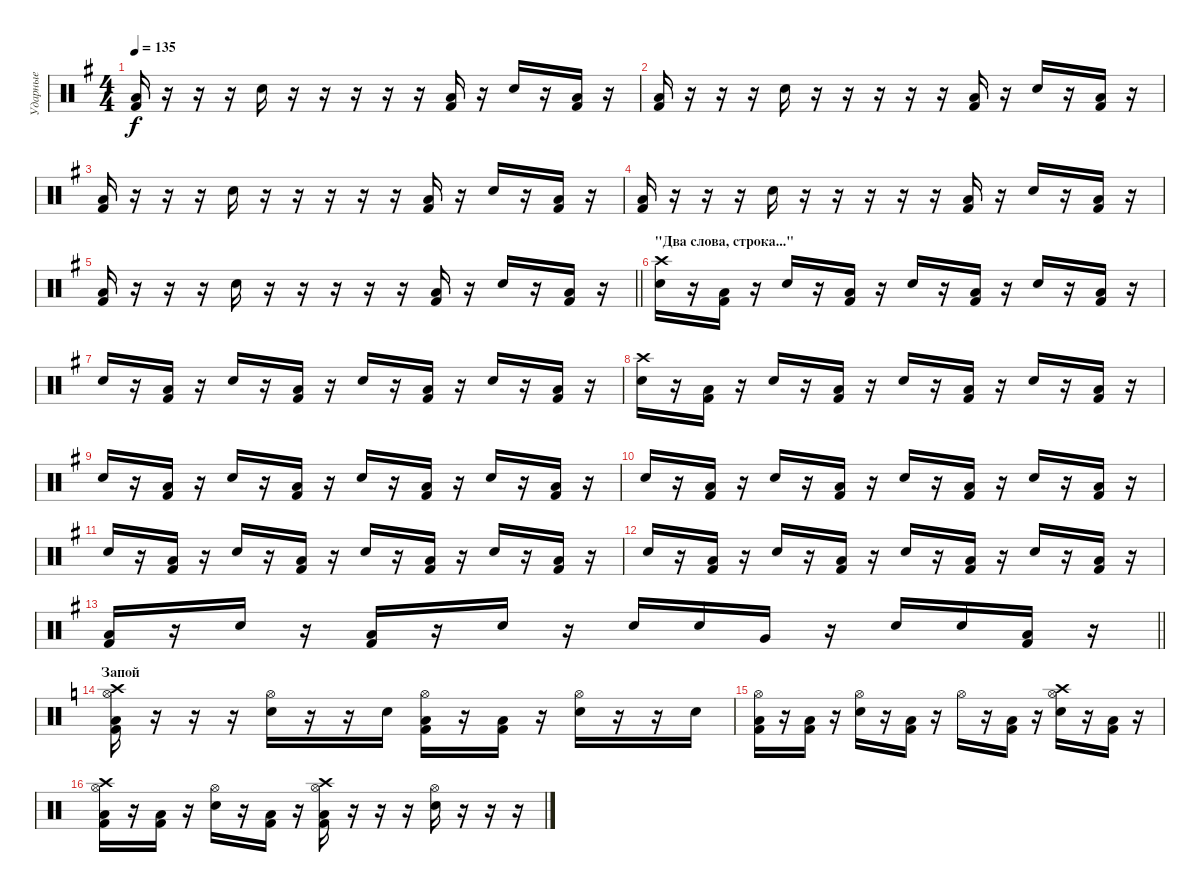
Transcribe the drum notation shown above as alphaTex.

\track ("Ударные" "Ударные") {instrument percussion}
\staff {score}
\articulation defaults
\ts (4 4)
\tempo 135
\clef neutral
\ks eminor
("Low Floor Tom (hit)" "Kick (hit) 2").16{dy f} r.16 r.16 r.16 "Electric Snare (hit)".16 r.16 r.16 r.16 r.16 r.16 ("Low Floor Tom (hit)" "Kick (hit) 2").16 r.16 "Electric Snare (hit)".16 r.16 ("Low Floor Tom (hit)" "Kick (hit) 2").16 r.16 |
("Low Floor Tom (hit)" "Kick (hit) 2").16 r.16 r.16 r.16 "Electric Snare (hit)".16 r.16 r.16 r.16 r.16 r.16 ("Low Floor Tom (hit)" "Kick (hit) 2").16 r.16 "Electric Snare (hit)".16 r.16 ("Low Floor Tom (hit)" "Kick (hit) 2").16 r.16 |
("Low Floor Tom (hit)" "Kick (hit) 2").16 r.16 r.16 r.16 "Electric Snare (hit)".16 r.16 r.16 r.16 r.16 r.16 ("Low Floor Tom (hit)" "Kick (hit) 2").16 r.16 "Electric Snare (hit)".16 r.16 ("Low Floor Tom (hit)" "Kick (hit) 2").16 r.16 |
("Low Floor Tom (hit)" "Kick (hit) 2").16 r.16 r.16 r.16 "Electric Snare (hit)".16 r.16 r.16 r.16 r.16 r.16 ("Low Floor Tom (hit)" "Kick (hit) 2").16 r.16 "Electric Snare (hit)".16 r.16 ("Low Floor Tom (hit)" "Kick (hit) 2").16 r.16 |
\barLineRight lightlight
("Low Floor Tom (hit)" "Kick (hit) 2").16 r.16 r.16 r.16 "Electric Snare (hit)".16 r.16 r.16 r.16 r.16 r.16 ("Low Floor Tom (hit)" "Kick (hit) 2").16 r.16 "Electric Snare (hit)".16 r.16 ("Low Floor Tom (hit)" "Kick (hit) 2").16 r.16 |
\section ("" "\"Два слова, строка...\"")
("Crash high (hit)" "Electric Snare (hit)").16 r.16 ("Low Floor Tom (hit)" "Kick (hit) 2").16 r.16 "Electric Snare (hit)".16 r.16 ("Low Floor Tom (hit)" "Kick (hit) 2").16 r.16 "Electric Snare (hit)".16 r.16 ("Low Floor Tom (hit)" "Kick (hit) 2").16 r.16 "Electric Snare (hit)".16 r.16 ("Low Floor Tom (hit)" "Kick (hit) 2").16 r.16 |
"Electric Snare (hit)".16 r.16 ("Low Floor Tom (hit)" "Kick (hit) 2").16 r.16 "Electric Snare (hit)".16 r.16 ("Low Floor Tom (hit)" "Kick (hit) 2").16 r.16 "Electric Snare (hit)".16 r.16 ("Low Floor Tom (hit)" "Kick (hit) 2").16 r.16 "Electric Snare (hit)".16 r.16 ("Low Floor Tom (hit)" "Kick (hit) 2").16 r.16 |
("Crash high (hit)" "Electric Snare (hit)").16 r.16 ("Low Floor Tom (hit)" "Kick (hit) 2").16 r.16 "Electric Snare (hit)".16 r.16 ("Low Floor Tom (hit)" "Kick (hit) 2").16 r.16 "Electric Snare (hit)".16 r.16 ("Low Floor Tom (hit)" "Kick (hit) 2").16 r.16 "Electric Snare (hit)".16 r.16 ("Low Floor Tom (hit)" "Kick (hit) 2").16 r.16 |
"Electric Snare (hit)".16 r.16 ("Low Floor Tom (hit)" "Kick (hit) 2").16 r.16 "Electric Snare (hit)".16 r.16 ("Low Floor Tom (hit)" "Kick (hit) 2").16 r.16 "Electric Snare (hit)".16 r.16 ("Low Floor Tom (hit)" "Kick (hit) 2").16 r.16 "Electric Snare (hit)".16 r.16 ("Low Floor Tom (hit)" "Kick (hit) 2").16 r.16 |
"Electric Snare (hit)".16 r.16 ("Low Floor Tom (hit)" "Kick (hit) 2").16 r.16 "Electric Snare (hit)".16 r.16 ("Low Floor Tom (hit)" "Kick (hit) 2").16 r.16 "Electric Snare (hit)".16 r.16 ("Low Floor Tom (hit)" "Kick (hit) 2").16 r.16 "Electric Snare (hit)".16 r.16 ("Low Floor Tom (hit)" "Kick (hit) 2").16 r.16 |
"Electric Snare (hit)".16 r.16 ("Low Floor Tom (hit)" "Kick (hit) 2").16 r.16 "Electric Snare (hit)".16 r.16 ("Low Floor Tom (hit)" "Kick (hit) 2").16 r.16 "Electric Snare (hit)".16 r.16 ("Low Floor Tom (hit)" "Kick (hit) 2").16 r.16 "Electric Snare (hit)".16 r.16 ("Low Floor Tom (hit)" "Kick (hit) 2").16 r.16 |
"Electric Snare (hit)".16 r.16 ("Low Floor Tom (hit)" "Kick (hit) 2").16 r.16 "Electric Snare (hit)".16 r.16 ("Low Floor Tom (hit)" "Kick (hit) 2").16 r.16 "Electric Snare (hit)".16 r.16 ("Low Floor Tom (hit)" "Kick (hit) 2").16 r.16 "Electric Snare (hit)".16 r.16 ("Low Floor Tom (hit)" "Kick (hit) 2").16 r.16 |
\barLineRight lightlight
("Low Floor Tom (hit)" "Kick (hit) 2").16 r.16 "Electric Snare (hit)".16 r.16 ("Low Floor Tom (hit)" "Kick (hit) 2").16 r.16 "Electric Snare (hit)".16 r.16 "Electric Snare (hit)".16 "Electric Snare (hit)".16 "Very Low Tom (hit)".16 r.16 "Electric Snare (hit)".16 "Electric Snare (hit)".16 ("Low Floor Tom (hit)" "Kick (hit) 2").16 r.16 |
\section ("" "Запой")
\ks c
("Crash high (hit)" "Hi-Hat (open)" "Low Floor Tom (hit)" "Kick (hit) 2").16 r.16 r.16 r.16 ("Hi-Hat (open)" "Electric Snare (hit)").16 r.16 r.16 "Electric Snare (hit)".16 ("Hi-Hat (open)" "Low Floor Tom (hit)" "Kick (hit) 2").16 r.16 ("Low Floor Tom (hit)" "Kick (hit) 2").16 r.16 ("Hi-Hat (open)" "Electric Snare (hit)").16 r.16 r.16 "Electric Snare (hit)".16 |
("Hi-Hat (open)" "Low Floor Tom (hit)" "Kick (hit) 2").16 r.16 ("Low Floor Tom (hit)" "Kick (hit) 2").16 r.16 ("Hi-Hat (open)" "Electric Snare (hit)").16 r.16 ("Low Floor Tom (hit)" "Kick (hit) 2").16 r.16 "Hi-Hat (open)".16 r.16 ("Low Floor Tom (hit)" "Kick (hit) 2").16 r.16 ("Crash high (hit)" "Hi-Hat (open)" "Electric Snare (hit)").16 r.16 ("Low Floor Tom (hit)" "Kick (hit) 2").16 r.16 |
("Crash high (hit)" "Hi-Hat (open)" "Low Floor Tom (hit)" "Kick (hit) 2").16 r.16 ("Low Floor Tom (hit)" "Kick (hit) 2").16 r.16 ("Hi-Hat (open)" "Electric Snare (hit)").16 r.16 ("Low Floor Tom (hit)" "Kick (hit) 2").16 r.16 ("Crash high (hit)" "Hi-Hat (open)" "Low Floor Tom (hit)" "Kick (hit) 2").16 r.16 r.16 r.16 ("Hi-Hat (open)" "Electric Snare (hit)").16 r.16 r.16 r.16
